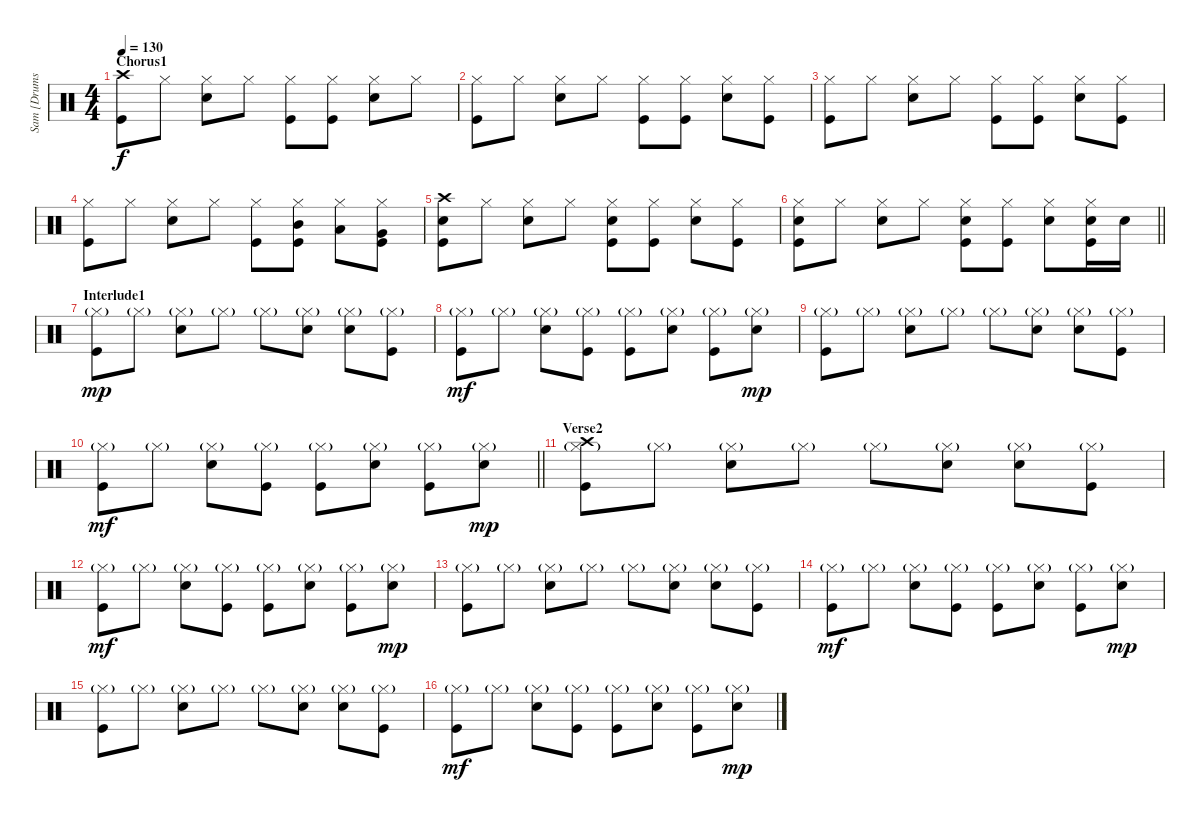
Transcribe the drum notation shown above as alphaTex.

\track ("Sam [Drums]" "Sam [Drums") {instrument percussion}
\staff {score}
\articulation defaults
\ts (4 4)
\section ("" "Chorus1")
\tempo 130
\clef neutral
\ks c
("Crash high (hit)" "Kick (hit)").8{dy f} "Hi-Hat (closed)".8 ("Hi-Hat (closed)" "Snare (hit) 2").8 "Hi-Hat (closed)".8 ("Hi-Hat (closed)" "Kick (hit)").8 ("Hi-Hat (closed)" "Kick (hit)").8 ("Hi-Hat (closed)" "Snare (hit) 2").8 "Hi-Hat (closed)".8 |
("Hi-Hat (closed)" "Kick (hit)").8 "Hi-Hat (closed)".8 ("Hi-Hat (closed)" "Snare (hit) 2").8 "Hi-Hat (closed)".8 ("Hi-Hat (closed)" "Kick (hit)").8 ("Hi-Hat (closed)" "Kick (hit)").8 ("Hi-Hat (closed)" "Snare (hit) 2").8 ("Hi-Hat (closed)" "Kick (hit)").8 |
("Hi-Hat (closed)" "Kick (hit)").8 "Hi-Hat (closed)".8 ("Hi-Hat (closed)" "Snare (hit) 2").8 "Hi-Hat (closed)".8 ("Hi-Hat (closed)" "Kick (hit)").8 ("Hi-Hat (closed)" "Kick (hit)").8 ("Hi-Hat (closed)" "Snare (hit) 2").8 ("Hi-Hat (closed)" "Kick (hit)").8 |
("Hi-Hat (closed)" "Kick (hit)").8 "Hi-Hat (closed)".8 ("Hi-Hat (closed)" "Snare (hit) 2").8 "Hi-Hat (closed)".8 ("Hi-Hat (closed)" "Kick (hit)").8 ("Hi-Hat (closed)" "Mid Tom (hit)" "Kick (hit)").8 ("Hi-Hat (closed)" "Low Tom (hit)").8 ("Hi-Hat (closed)" "Very Low Tom (hit)" "Kick (hit)").8 |
("Crash high (hit)" "Snare (hit) 2" "Kick (hit)").8 "Hi-Hat (closed)".8 ("Hi-Hat (closed)" "Snare (hit) 2").8 "Hi-Hat (closed)".8 ("Hi-Hat (closed)" "Snare (hit) 2" "Kick (hit)").8 ("Hi-Hat (closed)" "Kick (hit)").8 ("Hi-Hat (closed)" "Snare (hit) 2").8 ("Hi-Hat (closed)" "Kick (hit)").8 |
\barLineRight lightlight
("Hi-Hat (closed)" "Snare (hit) 2" "Kick (hit)").8 "Hi-Hat (closed)".8 ("Hi-Hat (closed)" "Snare (hit) 2").8 "Hi-Hat (closed)".8 ("Hi-Hat (closed)" "Snare (hit) 2" "Kick (hit)").8 ("Hi-Hat (closed)" "Kick (hit)").8 ("Hi-Hat (closed)" "Snare (hit) 2").8 ("Hi-Hat (closed)" "Snare (hit) 2" "Kick (hit)").16 "Snare (hit) 2".16 |
\section ("" "Interlude1")
("Hi-Hat (closed)"{g} "Kick (hit)").8{dy mp} "Hi-Hat (closed)"{g}.8 ("Hi-Hat (closed)"{g} "Snare (hit) 2").8 "Hi-Hat (closed)"{g}.8 "Hi-Hat (closed)"{g}.8 ("Hi-Hat (closed)"{g} "Snare (hit) 2").8 ("Hi-Hat (closed)"{g} "Snare (hit) 2").8 ("Hi-Hat (closed)"{g} "Kick (hit)").8 |
("Hi-Hat (closed)"{g} "Kick (hit)").8{dy mf} "Hi-Hat (closed)"{g}.8 ("Hi-Hat (closed)"{g} "Snare (hit) 2").8 ("Hi-Hat (closed)"{g} "Kick (hit)").8 ("Hi-Hat (closed)"{g} "Kick (hit)").8 ("Hi-Hat (closed)"{g} "Snare (hit) 2").8 ("Hi-Hat (closed)"{g} "Kick (hit)").8 ("Hi-Hat (closed)"{g} "Snare (hit) 2").8{dy mp} |
("Hi-Hat (closed)"{g} "Kick (hit)").8 "Hi-Hat (closed)"{g}.8 ("Hi-Hat (closed)"{g} "Snare (hit) 2").8 "Hi-Hat (closed)"{g}.8 "Hi-Hat (closed)"{g}.8 ("Hi-Hat (closed)"{g} "Snare (hit) 2").8 ("Hi-Hat (closed)"{g} "Snare (hit) 2").8 ("Hi-Hat (closed)"{g} "Kick (hit)").8 |
\barLineRight lightlight
("Hi-Hat (closed)"{g} "Kick (hit)").8{dy mf} "Hi-Hat (closed)"{g}.8 ("Hi-Hat (closed)"{g} "Snare (hit) 2").8 ("Hi-Hat (closed)"{g} "Kick (hit)").8 ("Hi-Hat (closed)"{g} "Kick (hit)").8 ("Hi-Hat (closed)"{g} "Snare (hit) 2").8 ("Hi-Hat (closed)"{g} "Kick (hit)").8 ("Hi-Hat (closed)"{g} "Snare (hit) 2").8{dy mp} |
\section ("" "Verse2")
("Hi-Hat (closed)"{g} "Crash high (hit)" "Kick (hit)").8 "Hi-Hat (closed)"{g}.8 ("Hi-Hat (closed)"{g} "Snare (hit) 2").8 "Hi-Hat (closed)"{g}.8 "Hi-Hat (closed)"{g}.8 ("Hi-Hat (closed)"{g} "Snare (hit) 2").8 ("Hi-Hat (closed)"{g} "Snare (hit) 2").8 ("Hi-Hat (closed)"{g} "Kick (hit)").8 |
("Hi-Hat (closed)"{g} "Kick (hit)").8{dy mf} "Hi-Hat (closed)"{g}.8 ("Hi-Hat (closed)"{g} "Snare (hit) 2").8 ("Hi-Hat (closed)"{g} "Kick (hit)").8 ("Hi-Hat (closed)"{g} "Kick (hit)").8 ("Hi-Hat (closed)"{g} "Snare (hit) 2").8 ("Hi-Hat (closed)"{g} "Kick (hit)").8 ("Hi-Hat (closed)"{g} "Snare (hit) 2").8{dy mp} |
("Hi-Hat (closed)"{g} "Kick (hit)").8 "Hi-Hat (closed)"{g}.8 ("Hi-Hat (closed)"{g} "Snare (hit) 2").8 "Hi-Hat (closed)"{g}.8 "Hi-Hat (closed)"{g}.8 ("Hi-Hat (closed)"{g} "Snare (hit) 2").8 ("Hi-Hat (closed)"{g} "Snare (hit) 2").8 ("Hi-Hat (closed)"{g} "Kick (hit)").8 |
("Hi-Hat (closed)"{g} "Kick (hit)").8{dy mf} "Hi-Hat (closed)"{g}.8 ("Hi-Hat (closed)"{g} "Snare (hit) 2").8 ("Hi-Hat (closed)"{g} "Kick (hit)").8 ("Hi-Hat (closed)"{g} "Kick (hit)").8 ("Hi-Hat (closed)"{g} "Snare (hit) 2").8 ("Hi-Hat (closed)"{g} "Kick (hit)").8 ("Hi-Hat (closed)"{g} "Snare (hit) 2").8{dy mp} |
("Hi-Hat (closed)"{g} "Kick (hit)").8 "Hi-Hat (closed)"{g}.8 ("Hi-Hat (closed)"{g} "Snare (hit) 2").8 "Hi-Hat (closed)"{g}.8 "Hi-Hat (closed)"{g}.8 ("Hi-Hat (closed)"{g} "Snare (hit) 2").8 ("Hi-Hat (closed)"{g} "Snare (hit) 2").8 ("Hi-Hat (closed)"{g} "Kick (hit)").8 |
("Hi-Hat (closed)"{g} "Kick (hit)").8{dy mf} "Hi-Hat (closed)"{g}.8 ("Hi-Hat (closed)"{g} "Snare (hit) 2").8 ("Hi-Hat (closed)"{g} "Kick (hit)").8 ("Hi-Hat (closed)"{g} "Kick (hit)").8 ("Hi-Hat (closed)"{g} "Snare (hit) 2").8 ("Hi-Hat (closed)"{g} "Kick (hit)").8 ("Hi-Hat (closed)"{g} "Snare (hit) 2").8{dy mp}
